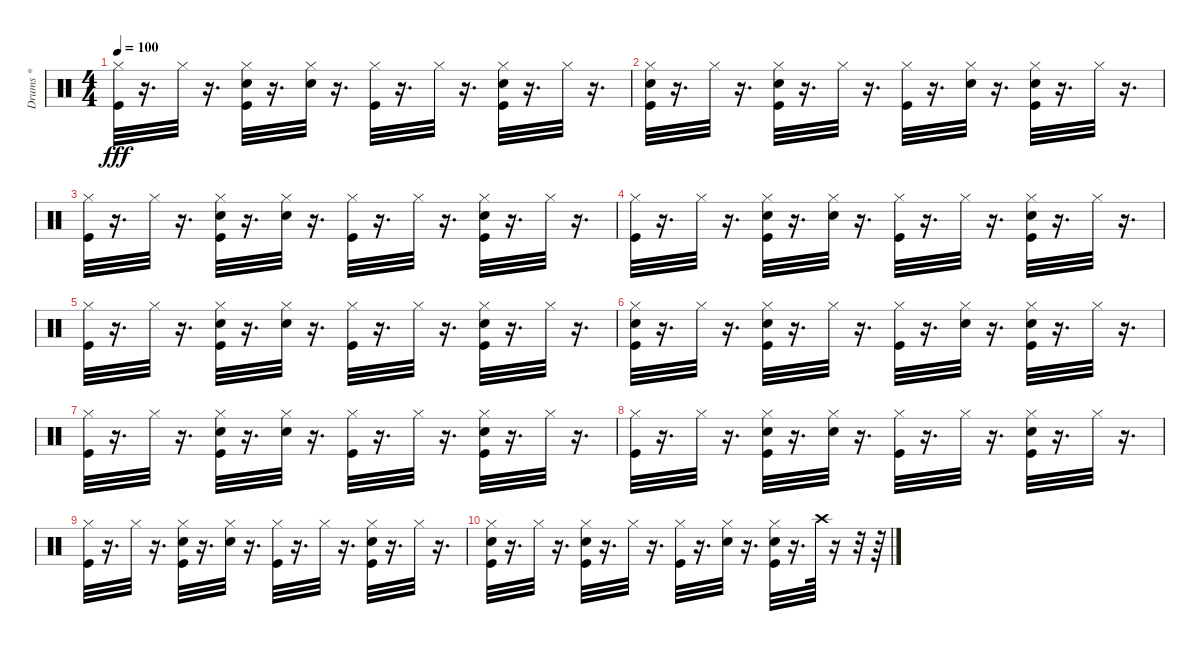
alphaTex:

\track ("Drums *" "Drums *") {instrument percussion}
\staff {score}
\articulation defaults
\ts (4 4)
\tempo 100
\clef neutral
\ks c
("Kick (hit)" "Hi-Hat (closed)").32{dy fff} r.16{d} "Hi-Hat (closed)".32 r.16{d} ("Kick (hit)" "Hi-Hat (closed)" "Snare (hit) 2").32 r.16{d} ("Hi-Hat (closed)" "Snare (hit) 2").32 r.16{d} ("Hi-Hat (closed)" "Kick (hit)").32 r.16{d} "Hi-Hat (closed)".32 r.16{d} ("Kick (hit)" "Hi-Hat (closed)" "Snare (hit) 2").32 r.16{d} "Hi-Hat (closed)".32 r.16{d} |
("Kick (hit)" "Hi-Hat (closed)" "Snare (hit) 2").32 r.16{d} "Hi-Hat (closed)".32 r.16{d} ("Kick (hit)" "Hi-Hat (closed)" "Snare (hit) 2").32 r.16{d} "Hi-Hat (closed)".32 r.16{d} ("Hi-Hat (closed)" "Kick (hit)").32 r.16{d} ("Snare (hit) 2" "Hi-Hat (closed)").32 r.16{d} ("Kick (hit)" "Hi-Hat (closed)" "Snare (hit) 2").32 r.16{d} "Hi-Hat (closed)".32 r.16{d} |
("Hi-Hat (closed)" "Kick (hit)").32 r.16{d} "Hi-Hat (closed)".32 r.16{d} ("Hi-Hat (closed)" "Snare (hit) 2" "Kick (hit)").32 r.16{d} ("Snare (hit) 2" "Hi-Hat (closed)").32 r.16{d} ("Kick (hit)" "Hi-Hat (closed)").32 r.16{d} "Hi-Hat (closed)".32 r.16{d} ("Hi-Hat (closed)" "Kick (hit)" "Snare (hit) 2").32 r.16{d} "Hi-Hat (closed)".32 r.16{d} |
("Kick (hit)" "Hi-Hat (closed)").32 r.16{d} "Hi-Hat (closed)".32 r.16{d} ("Kick (hit)" "Hi-Hat (closed)" "Snare (hit) 2").32 r.16{d} ("Hi-Hat (closed)" "Snare (hit) 2").32 r.16{d} ("Kick (hit)" "Hi-Hat (closed)").32 r.16{d} "Hi-Hat (closed)".32 r.16{d} ("Kick (hit)" "Snare (hit) 2" "Hi-Hat (closed)").32 r.16{d} "Hi-Hat (closed)".32 r.16{d} |
("Kick (hit)" "Hi-Hat (closed)").32 r.16{d} "Hi-Hat (closed)".32 r.16{d} ("Kick (hit)" "Snare (hit) 2" "Hi-Hat (closed)").32 r.16{d} ("Hi-Hat (closed)" "Snare (hit) 2").32 r.16{d} ("Kick (hit)" "Hi-Hat (closed)").32 r.16{d} "Hi-Hat (closed)".32 r.16{d} ("Hi-Hat (closed)" "Kick (hit)" "Snare (hit) 2").32 r.16{d} "Hi-Hat (closed)".32 r.16{d} |
("Hi-Hat (closed)" "Kick (hit)" "Snare (hit) 2").32 r.16{d} "Hi-Hat (closed)".32 r.16{d} ("Hi-Hat (closed)" "Kick (hit)" "Snare (hit) 2").32 r.16{d} "Hi-Hat (closed)".32 r.16{d} ("Hi-Hat (closed)" "Kick (hit)").32 r.16{d} ("Hi-Hat (closed)" "Snare (hit) 2").32 r.16{d} ("Kick (hit)" "Hi-Hat (closed)" "Snare (hit) 2").32 r.16{d} "Hi-Hat (closed)".32 r.16{d} |
("Hi-Hat (closed)" "Kick (hit)").32 r.16{d} "Hi-Hat (closed)".32 r.16{d} ("Hi-Hat (closed)" "Kick (hit)" "Snare (hit) 2").32 r.16{d} ("Hi-Hat (closed)" "Snare (hit) 2").32 r.16{d} ("Hi-Hat (closed)" "Kick (hit)").32 r.16{d} "Hi-Hat (closed)".32 r.16{d} ("Kick (hit)" "Hi-Hat (closed)" "Snare (hit) 2").32 r.16{d} "Hi-Hat (closed)".32 r.16{d} |
("Kick (hit)" "Hi-Hat (closed)").32 r.16{d} "Hi-Hat (closed)".32 r.16{d} ("Kick (hit)" "Hi-Hat (closed)" "Snare (hit) 2").32 r.16{d} ("Hi-Hat (closed)" "Snare (hit) 2").32 r.16{d} ("Hi-Hat (closed)" "Kick (hit)").32 r.16{d} "Hi-Hat (closed)".32 r.16{d} ("Kick (hit)" "Hi-Hat (closed)" "Snare (hit) 2").32 r.16{d} "Hi-Hat (closed)".32 r.16{d} |
("Hi-Hat (closed)" "Kick (hit)").32 r.16{d} "Hi-Hat (closed)".32 r.16{d} ("Hi-Hat (closed)" "Snare (hit) 2" "Kick (hit)").32 r.16{d} ("Snare (hit) 2" "Hi-Hat (closed)").32 r.16{d} ("Kick (hit)" "Hi-Hat (closed)").32 r.16{d} "Hi-Hat (closed)".32 r.16{d} ("Kick (hit)" "Hi-Hat (closed)" "Snare (hit) 2").32 r.16{d} "Hi-Hat (closed)".32 r.16{d} |
("Snare (hit) 2" "Hi-Hat (closed)" "Kick (hit)").32 r.16{d} "Hi-Hat (closed)".32 r.16{d} ("Hi-Hat (closed)" "Snare (hit) 2" "Kick (hit)").32 r.16{d} "Hi-Hat (closed)".32 r.16{d} ("Kick (hit)" "Hi-Hat (closed)").32 r.16{d} ("Hi-Hat (closed)" "Snare (hit) 2").32 r.16{d} ("Snare (hit) 2" "Kick (hit)" "Hi-Hat (closed)").32 r.16{d} "Crash high (hit)".64 r.16 r.32 r.64
